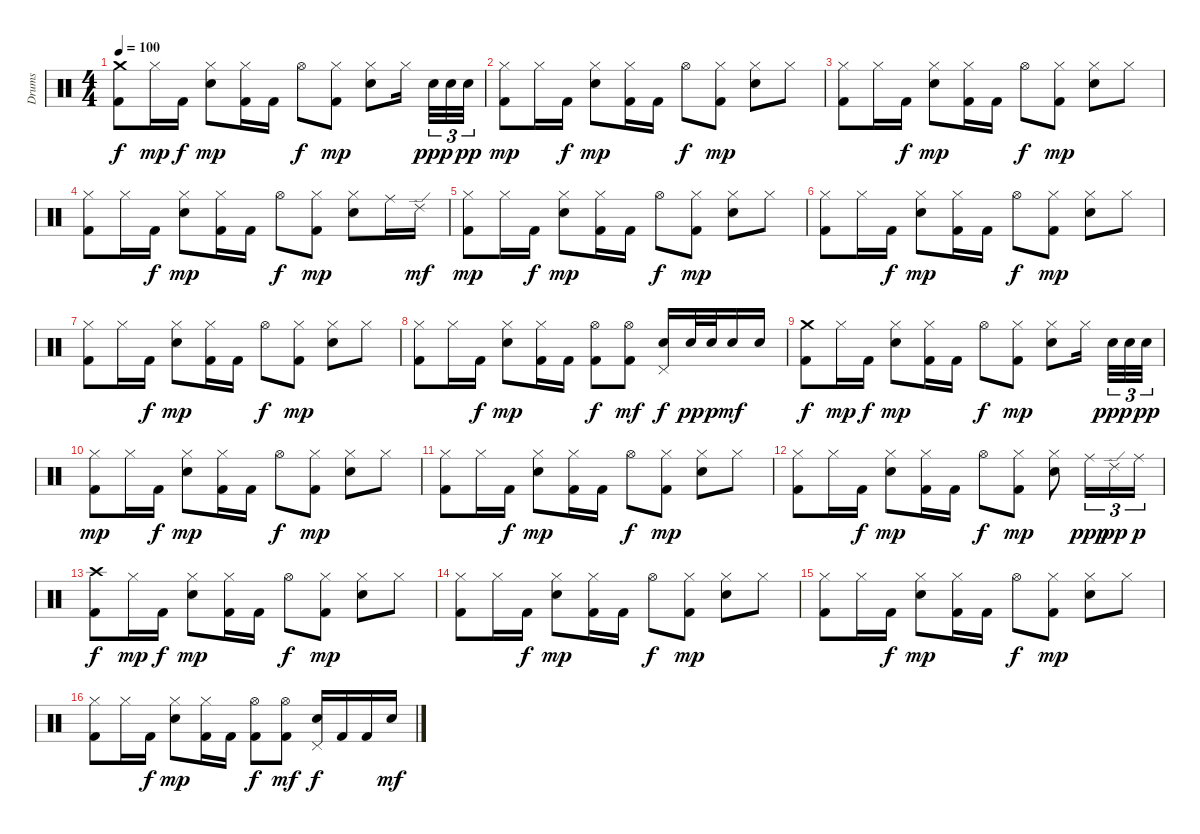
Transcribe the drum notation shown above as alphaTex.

\track ("Drums" "Drums") {instrument percussion}
\staff {score}
\articulation defaults
\ts (4 4)
\tempo 100
\clef neutral
\ks c
("Crash medium (hit)" "Kick (hit) 2").8{dy f} "Hi-Hat (closed)".16{dy mp} "Kick (hit) 2".16{dy f} ("Hi-Hat (closed)" "Electric Snare (hit)").8{dy mp} ("Hi-Hat (closed)" "Kick (hit) 2").16 "Kick (hit) 2".16 "Hi-Hat (open)".8{dy f} ("Hi-Hat (closed)" "Kick (hit) 2").8{dy mp} ("Hi-Hat (closed)" "Electric Snare (hit)").8 "Hi-Hat (closed)".16 "Electric Snare (hit)".32{tu (3 2) dy ppp} "Electric Snare (hit)".32{tu (3 2)} "Electric Snare (hit)".32{tu (3 2) dy pp} |
("Hi-Hat (closed)" "Kick (hit) 2").8{dy mp} "Hi-Hat (closed)".16 "Kick (hit) 2".16{dy f} ("Hi-Hat (closed)" "Electric Snare (hit)").8{dy mp} ("Hi-Hat (closed)" "Kick (hit) 2").16 "Kick (hit) 2".16 "Hi-Hat (open)".8{dy f} ("Hi-Hat (closed)" "Kick (hit) 2").8{dy mp} ("Hi-Hat (closed)" "Electric Snare (hit)").8 "Hi-Hat (closed)".8 |
("Hi-Hat (closed)" "Kick (hit) 2").8 "Hi-Hat (closed)".16 "Kick (hit) 2".16{dy f} ("Hi-Hat (closed)" "Electric Snare (hit)").8{dy mp} ("Hi-Hat (closed)" "Kick (hit) 2").16 "Kick (hit) 2".16 "Hi-Hat (open)".8{dy f} ("Hi-Hat (closed)" "Kick (hit) 2").8{dy mp} ("Hi-Hat (closed)" "Electric Snare (hit)").8 "Hi-Hat (closed)".8 |
("Hi-Hat (closed)" "Kick (hit) 2").8 "Hi-Hat (closed)".16 "Kick (hit) 2".16{dy f} ("Hi-Hat (closed)" "Electric Snare (hit)").8{dy mp} ("Hi-Hat (closed)" "Kick (hit) 2").16 "Kick (hit) 2".16 "Hi-Hat (open)".8{dy f} ("Hi-Hat (closed)" "Kick (hit) 2").8{dy mp} ("Hi-Hat (closed)" "Electric Snare (hit)").8 "Ride (middle)".16 "Ride (edge) 2".16{dy mf} |
("Hi-Hat (closed)" "Kick (hit) 2").8{dy mp} "Hi-Hat (closed)".16 "Kick (hit) 2".16{dy f} ("Hi-Hat (closed)" "Electric Snare (hit)").8{dy mp} ("Hi-Hat (closed)" "Kick (hit) 2").16 "Kick (hit) 2".16 "Hi-Hat (open)".8{dy f} ("Hi-Hat (closed)" "Kick (hit) 2").8{dy mp} ("Hi-Hat (closed)" "Electric Snare (hit)").8 "Hi-Hat (closed)".8 |
("Hi-Hat (closed)" "Kick (hit) 2").8 "Hi-Hat (closed)".16 "Kick (hit) 2".16{dy f} ("Hi-Hat (closed)" "Electric Snare (hit)").8{dy mp} ("Hi-Hat (closed)" "Kick (hit) 2").16 "Kick (hit) 2".16 "Hi-Hat (open)".8{dy f} ("Hi-Hat (closed)" "Kick (hit) 2").8{dy mp} ("Hi-Hat (closed)" "Electric Snare (hit)").8 "Hi-Hat (closed)".8 |
("Hi-Hat (closed)" "Kick (hit) 2").8 "Hi-Hat (closed)".16 "Kick (hit) 2".16{dy f} ("Hi-Hat (closed)" "Electric Snare (hit)").8{dy mp} ("Hi-Hat (closed)" "Kick (hit) 2").16 "Kick (hit) 2".16 "Hi-Hat (open)".8{dy f} ("Hi-Hat (closed)" "Kick (hit) 2").8{dy mp} ("Hi-Hat (closed)" "Electric Snare (hit)").8 "Hi-Hat (closed)".8 |
("Hi-Hat (closed)" "Kick (hit) 2").8 "Hi-Hat (closed)".16 "Kick (hit) 2".16{dy f} ("Hi-Hat (closed)" "Electric Snare (hit)").8{dy mp} ("Hi-Hat (closed)" "Kick (hit) 2").16 "Kick (hit) 2".16 ("Hi-Hat (open)" "Kick (hit) 2").8{dy f} ("Hi-Hat (open)" "Kick (hit) 2").8{dy mf} ("Pedal Hi-Hat (hit)" "Electric Snare (hit)").16{dy f} "Electric Snare (hit)".32{dy pp} "Electric Snare (hit)".32{dy p} "Electric Snare (hit)".16{dy mf} "Electric Snare (hit)".16 |
("Crash medium (hit)" "Kick (hit) 2").8{dy f} "Hi-Hat (closed)".16{dy mp} "Kick (hit) 2".16{dy f} ("Hi-Hat (closed)" "Electric Snare (hit)").8{dy mp} ("Hi-Hat (closed)" "Kick (hit) 2").16 "Kick (hit) 2".16 "Hi-Hat (open)".8{dy f} ("Hi-Hat (closed)" "Kick (hit) 2").8{dy mp} ("Hi-Hat (closed)" "Electric Snare (hit)").8 "Hi-Hat (closed)".16 "Electric Snare (hit)".32{tu (3 2) dy ppp} "Electric Snare (hit)".32{tu (3 2)} "Electric Snare (hit)".32{tu (3 2) dy pp} |
("Hi-Hat (closed)" "Kick (hit) 2").8{dy mp} "Hi-Hat (closed)".16 "Kick (hit) 2".16{dy f} ("Hi-Hat (closed)" "Electric Snare (hit)").8{dy mp} ("Hi-Hat (closed)" "Kick (hit) 2").16 "Kick (hit) 2".16 "Hi-Hat (open)".8{dy f} ("Hi-Hat (closed)" "Kick (hit) 2").8{dy mp} ("Hi-Hat (closed)" "Electric Snare (hit)").8 "Hi-Hat (closed)".8 |
("Hi-Hat (closed)" "Kick (hit) 2").8 "Hi-Hat (closed)".16 "Kick (hit) 2".16{dy f} ("Hi-Hat (closed)" "Electric Snare (hit)").8{dy mp} ("Hi-Hat (closed)" "Kick (hit) 2").16 "Kick (hit) 2".16 "Hi-Hat (open)".8{dy f} ("Hi-Hat (closed)" "Kick (hit) 2").8{dy mp} ("Hi-Hat (closed)" "Electric Snare (hit)").8 "Hi-Hat (closed)".8 |
("Hi-Hat (closed)" "Kick (hit) 2").8 "Hi-Hat (closed)".16 "Kick (hit) 2".16{dy f} ("Hi-Hat (closed)" "Electric Snare (hit)").8{dy mp} ("Hi-Hat (closed)" "Kick (hit) 2").16 "Kick (hit) 2".16 "Hi-Hat (open)".8{dy f} ("Hi-Hat (closed)" "Kick (hit) 2").8{dy mp} ("Hi-Hat (closed)" "Electric Snare (hit)").8 "Ride (middle)".16{tu (3 2) dy ppp} "Ride (edge) 2".16{tu (3 2) dy pp} "Ride (middle)".16{tu (3 2) dy p} |
("Crash high (hit)" "Kick (hit) 2").8{dy f} "Hi-Hat (closed)".16{dy mp} "Kick (hit) 2".16{dy f} ("Hi-Hat (closed)" "Electric Snare (hit)").8{dy mp} ("Hi-Hat (closed)" "Kick (hit) 2").16 "Kick (hit) 2".16 "Hi-Hat (open)".8{dy f} ("Hi-Hat (closed)" "Kick (hit) 2").8{dy mp} ("Hi-Hat (closed)" "Electric Snare (hit)").8 "Hi-Hat (closed)".8 |
("Hi-Hat (closed)" "Kick (hit) 2").8 "Hi-Hat (closed)".16 "Kick (hit) 2".16{dy f} ("Hi-Hat (closed)" "Electric Snare (hit)").8{dy mp} ("Hi-Hat (closed)" "Kick (hit) 2").16 "Kick (hit) 2".16 "Hi-Hat (open)".8{dy f} ("Hi-Hat (closed)" "Kick (hit) 2").8{dy mp} ("Hi-Hat (closed)" "Electric Snare (hit)").8 "Hi-Hat (closed)".8 |
("Hi-Hat (closed)" "Kick (hit) 2").8 "Hi-Hat (closed)".16 "Kick (hit) 2".16{dy f} ("Hi-Hat (closed)" "Electric Snare (hit)").8{dy mp} ("Hi-Hat (closed)" "Kick (hit) 2").16 "Kick (hit) 2".16 "Hi-Hat (open)".8{dy f} ("Hi-Hat (closed)" "Kick (hit) 2").8{dy mp} ("Hi-Hat (closed)" "Electric Snare (hit)").8 "Hi-Hat (closed)".8 |
("Hi-Hat (closed)" "Kick (hit) 2").8 "Hi-Hat (closed)".16 "Kick (hit) 2".16{dy f} ("Hi-Hat (closed)" "Electric Snare (hit)").8{dy mp} ("Hi-Hat (closed)" "Kick (hit) 2").16 "Kick (hit) 2".16 ("Hi-Hat (open)" "Kick (hit) 2").8{dy f} ("Hi-Hat (open)" "Kick (hit) 2").8{dy mf} ("Pedal Hi-Hat (hit)" "Electric Snare (hit)").16{dy f} "Kick (hit) 2".16 "Kick (hit) 2".16 "Electric Snare (hit)".16{dy mf}
